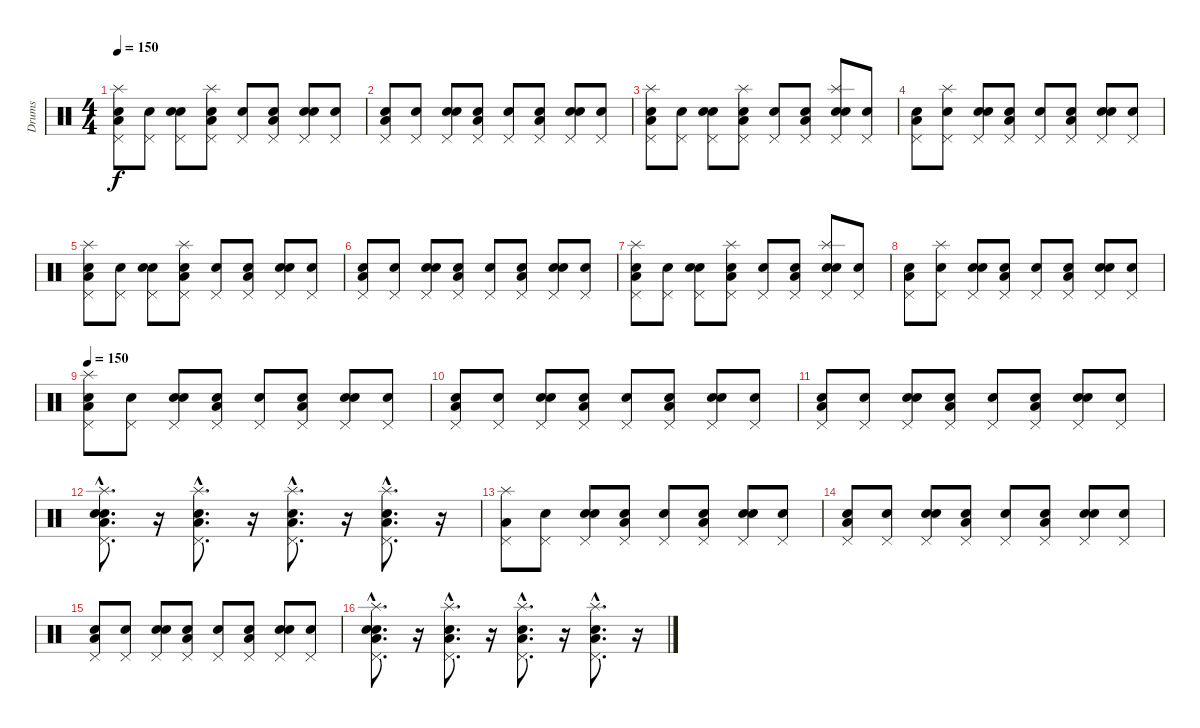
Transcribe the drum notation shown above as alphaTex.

\track ("Drums" "Drums") {instrument percussion}
\staff {score}
\articulation defaults
\ts (4 4)
\tempo 150
\clef neutral
\ks c
("Snare (hit)" "Low Floor Tom (hit)" "Pedal Hi-Hat (hit)" "Splash (hit)").8{dy f} ("Snare (hit)" "Pedal Hi-Hat (hit)").8 ("Snare (hit)" "Electric Snare (hit)" "Pedal Hi-Hat (hit)").8 ("Snare (hit)" "Low Floor Tom (hit)" "Pedal Hi-Hat (hit)" "Splash (hit)").8 ("Snare (hit)" "Pedal Hi-Hat (hit)").8 ("Snare (hit)" "Low Floor Tom (hit)" "Pedal Hi-Hat (hit)").8 ("Snare (hit)" "Electric Snare (hit)" "Pedal Hi-Hat (hit)").8 ("Snare (hit)" "Pedal Hi-Hat (hit)").8 |
("Snare (hit)" "Low Floor Tom (hit)" "Pedal Hi-Hat (hit)").8 ("Snare (hit)" "Pedal Hi-Hat (hit)").8 ("Snare (hit)" "Electric Snare (hit)" "Pedal Hi-Hat (hit)").8 ("Snare (hit)" "Low Floor Tom (hit)" "Pedal Hi-Hat (hit)").8 ("Snare (hit)" "Pedal Hi-Hat (hit)").8 ("Snare (hit)" "Low Floor Tom (hit)" "Pedal Hi-Hat (hit)").8 ("Snare (hit)" "Electric Snare (hit)" "Pedal Hi-Hat (hit)").8 ("Snare (hit)" "Pedal Hi-Hat (hit)").8 |
("Snare (hit)" "Low Floor Tom (hit)" "Pedal Hi-Hat (hit)" "Splash (hit)").8 ("Snare (hit)" "Pedal Hi-Hat (hit)").8 ("Snare (hit)" "Electric Snare (hit)" "Pedal Hi-Hat (hit)").8 ("Snare (hit)" "Low Floor Tom (hit)" "Pedal Hi-Hat (hit)" "Splash (hit)").8 ("Snare (hit)" "Pedal Hi-Hat (hit)").8 ("Snare (hit)" "Low Floor Tom (hit)" "Pedal Hi-Hat (hit)").8 ("Snare (hit)" "Electric Snare (hit)" "Pedal Hi-Hat (hit)" "Splash (hit)").8 ("Snare (hit)" "Pedal Hi-Hat (hit)").8 |
("Snare (hit)" "Low Floor Tom (hit)" "Pedal Hi-Hat (hit)").8 ("Snare (hit)" "Pedal Hi-Hat (hit)" "Splash (hit)").8 ("Snare (hit)" "Electric Snare (hit)" "Pedal Hi-Hat (hit)").8 ("Snare (hit)" "Low Floor Tom (hit)" "Pedal Hi-Hat (hit)").8 ("Snare (hit)" "Pedal Hi-Hat (hit)").8 ("Snare (hit)" "Low Floor Tom (hit)" "Pedal Hi-Hat (hit)").8 ("Snare (hit)" "Electric Snare (hit)" "Pedal Hi-Hat (hit)").8 ("Snare (hit)" "Pedal Hi-Hat (hit)").8 |
("Snare (hit)" "Low Floor Tom (hit)" "Pedal Hi-Hat (hit)" "Splash (hit)").8 ("Snare (hit)" "Pedal Hi-Hat (hit)").8 ("Snare (hit)" "Electric Snare (hit)" "Pedal Hi-Hat (hit)").8 ("Snare (hit)" "Low Floor Tom (hit)" "Pedal Hi-Hat (hit)" "Splash (hit)").8 ("Snare (hit)" "Pedal Hi-Hat (hit)").8 ("Snare (hit)" "Low Floor Tom (hit)" "Pedal Hi-Hat (hit)").8 ("Snare (hit)" "Electric Snare (hit)" "Pedal Hi-Hat (hit)").8 ("Snare (hit)" "Pedal Hi-Hat (hit)").8 |
("Snare (hit)" "Low Floor Tom (hit)" "Pedal Hi-Hat (hit)").8 ("Snare (hit)" "Pedal Hi-Hat (hit)").8 ("Snare (hit)" "Electric Snare (hit)" "Pedal Hi-Hat (hit)").8 ("Snare (hit)" "Low Floor Tom (hit)" "Pedal Hi-Hat (hit)").8 ("Snare (hit)" "Pedal Hi-Hat (hit)").8 ("Snare (hit)" "Low Floor Tom (hit)" "Pedal Hi-Hat (hit)").8 ("Snare (hit)" "Electric Snare (hit)" "Pedal Hi-Hat (hit)").8 ("Snare (hit)" "Pedal Hi-Hat (hit)").8 |
("Snare (hit)" "Low Floor Tom (hit)" "Pedal Hi-Hat (hit)" "Splash (hit)").8 ("Snare (hit)" "Pedal Hi-Hat (hit)").8 ("Snare (hit)" "Electric Snare (hit)" "Pedal Hi-Hat (hit)").8 ("Snare (hit)" "Low Floor Tom (hit)" "Pedal Hi-Hat (hit)" "Splash (hit)").8 ("Snare (hit)" "Pedal Hi-Hat (hit)").8 ("Snare (hit)" "Low Floor Tom (hit)" "Pedal Hi-Hat (hit)").8 ("Snare (hit)" "Electric Snare (hit)" "Pedal Hi-Hat (hit)" "Splash (hit)").8 ("Snare (hit)" "Pedal Hi-Hat (hit)").8 |
("Snare (hit)" "Low Floor Tom (hit)" "Pedal Hi-Hat (hit)").8 ("Snare (hit)" "Pedal Hi-Hat (hit)" "Splash (hit)").8 ("Snare (hit)" "Electric Snare (hit)" "Pedal Hi-Hat (hit)").8 ("Snare (hit)" "Low Floor Tom (hit)" "Pedal Hi-Hat (hit)").8 ("Snare (hit)" "Pedal Hi-Hat (hit)").8 ("Snare (hit)" "Low Floor Tom (hit)" "Pedal Hi-Hat (hit)").8 ("Snare (hit)" "Electric Snare (hit)" "Pedal Hi-Hat (hit)").8 ("Snare (hit)" "Pedal Hi-Hat (hit)").8 |
\tempo 150
("Snare (hit)" "Low Floor Tom (hit)" "Pedal Hi-Hat (hit)" "Splash (hit)").8 ("Snare (hit)" "Pedal Hi-Hat (hit)").8 ("Snare (hit)" "Electric Snare (hit)" "Pedal Hi-Hat (hit)").8 ("Snare (hit)" "Low Floor Tom (hit)" "Pedal Hi-Hat (hit)").8 ("Snare (hit)" "Pedal Hi-Hat (hit)").8 ("Snare (hit)" "Low Floor Tom (hit)" "Pedal Hi-Hat (hit)").8 ("Snare (hit)" "Electric Snare (hit)" "Pedal Hi-Hat (hit)").8 ("Snare (hit)" "Pedal Hi-Hat (hit)").8 |
("Snare (hit)" "Low Floor Tom (hit)" "Pedal Hi-Hat (hit)").8 ("Snare (hit)" "Pedal Hi-Hat (hit)").8 ("Snare (hit)" "Electric Snare (hit)" "Pedal Hi-Hat (hit)").8 ("Snare (hit)" "Low Floor Tom (hit)" "Pedal Hi-Hat (hit)").8 ("Snare (hit)" "Pedal Hi-Hat (hit)").8 ("Snare (hit)" "Low Floor Tom (hit)" "Pedal Hi-Hat (hit)").8 ("Snare (hit)" "Electric Snare (hit)" "Pedal Hi-Hat (hit)").8 ("Snare (hit)" "Pedal Hi-Hat (hit)").8 |
("Snare (hit)" "Low Floor Tom (hit)" "Pedal Hi-Hat (hit)").8 ("Snare (hit)" "Pedal Hi-Hat (hit)").8 ("Snare (hit)" "Electric Snare (hit)" "Pedal Hi-Hat (hit)").8 ("Snare (hit)" "Low Floor Tom (hit)" "Pedal Hi-Hat (hit)").8 ("Snare (hit)" "Pedal Hi-Hat (hit)").8 ("Snare (hit)" "Low Floor Tom (hit)" "Pedal Hi-Hat (hit)").8 ("Snare (hit)" "Electric Snare (hit)" "Pedal Hi-Hat (hit)").8 ("Snare (hit)" "Pedal Hi-Hat (hit)").8 |
("Snare (hit)"{hac} "Electric Snare (hit)"{hac} "Low Floor Tom (hit)"{hac} "Pedal Hi-Hat (hit)"{hac} "Splash (hit)"{hac}).8{d} r.16 ("Electric Snare (hit)"{hac} "Low Floor Tom (hit)"{hac} "Pedal Hi-Hat (hit)"{hac} "Splash (hit)"{hac}).8{d} r.16 ("Electric Snare (hit)"{hac} "Low Floor Tom (hit)"{hac} "Pedal Hi-Hat (hit)"{hac} "Splash (hit)"{hac}).8{d} r.16 ("Electric Snare (hit)"{hac} "Low Floor Tom (hit)"{hac} "Pedal Hi-Hat (hit)"{hac} "Splash (hit)"{hac}).8{d} r.16 |
("Low Floor Tom (hit)" "Pedal Hi-Hat (hit)" "Splash (hit)").8 ("Snare (hit)" "Pedal Hi-Hat (hit)").8 ("Snare (hit)" "Electric Snare (hit)" "Pedal Hi-Hat (hit)").8 ("Snare (hit)" "Low Floor Tom (hit)" "Pedal Hi-Hat (hit)").8 ("Snare (hit)" "Pedal Hi-Hat (hit)").8 ("Snare (hit)" "Low Floor Tom (hit)" "Pedal Hi-Hat (hit)").8 ("Snare (hit)" "Electric Snare (hit)" "Pedal Hi-Hat (hit)").8 ("Snare (hit)" "Pedal Hi-Hat (hit)").8 |
("Snare (hit)" "Low Floor Tom (hit)" "Pedal Hi-Hat (hit)").8 ("Snare (hit)" "Pedal Hi-Hat (hit)").8 ("Snare (hit)" "Electric Snare (hit)" "Pedal Hi-Hat (hit)").8 ("Snare (hit)" "Low Floor Tom (hit)" "Pedal Hi-Hat (hit)").8 ("Snare (hit)" "Pedal Hi-Hat (hit)").8 ("Snare (hit)" "Low Floor Tom (hit)" "Pedal Hi-Hat (hit)").8 ("Snare (hit)" "Electric Snare (hit)" "Pedal Hi-Hat (hit)").8 ("Snare (hit)" "Pedal Hi-Hat (hit)").8 |
("Snare (hit)" "Low Floor Tom (hit)" "Pedal Hi-Hat (hit)").8 ("Snare (hit)" "Pedal Hi-Hat (hit)").8 ("Snare (hit)" "Electric Snare (hit)" "Pedal Hi-Hat (hit)").8 ("Snare (hit)" "Low Floor Tom (hit)" "Pedal Hi-Hat (hit)").8 ("Snare (hit)" "Pedal Hi-Hat (hit)").8 ("Snare (hit)" "Low Floor Tom (hit)" "Pedal Hi-Hat (hit)").8 ("Snare (hit)" "Electric Snare (hit)" "Pedal Hi-Hat (hit)").8 ("Snare (hit)" "Pedal Hi-Hat (hit)").8 |
("Snare (hit)"{hac} "Electric Snare (hit)"{hac} "Low Floor Tom (hit)"{hac} "Pedal Hi-Hat (hit)"{hac} "Splash (hit)"{hac}).8{d} r.16 ("Electric Snare (hit)"{hac} "Low Floor Tom (hit)"{hac} "Pedal Hi-Hat (hit)"{hac} "Splash (hit)"{hac}).8{d} r.16 ("Electric Snare (hit)"{hac} "Low Floor Tom (hit)"{hac} "Pedal Hi-Hat (hit)"{hac} "Splash (hit)"{hac}).8{d} r.16 ("Electric Snare (hit)"{hac} "Low Floor Tom (hit)"{hac} "Pedal Hi-Hat (hit)"{hac} "Splash (hit)"{hac}).8{d} r.16
